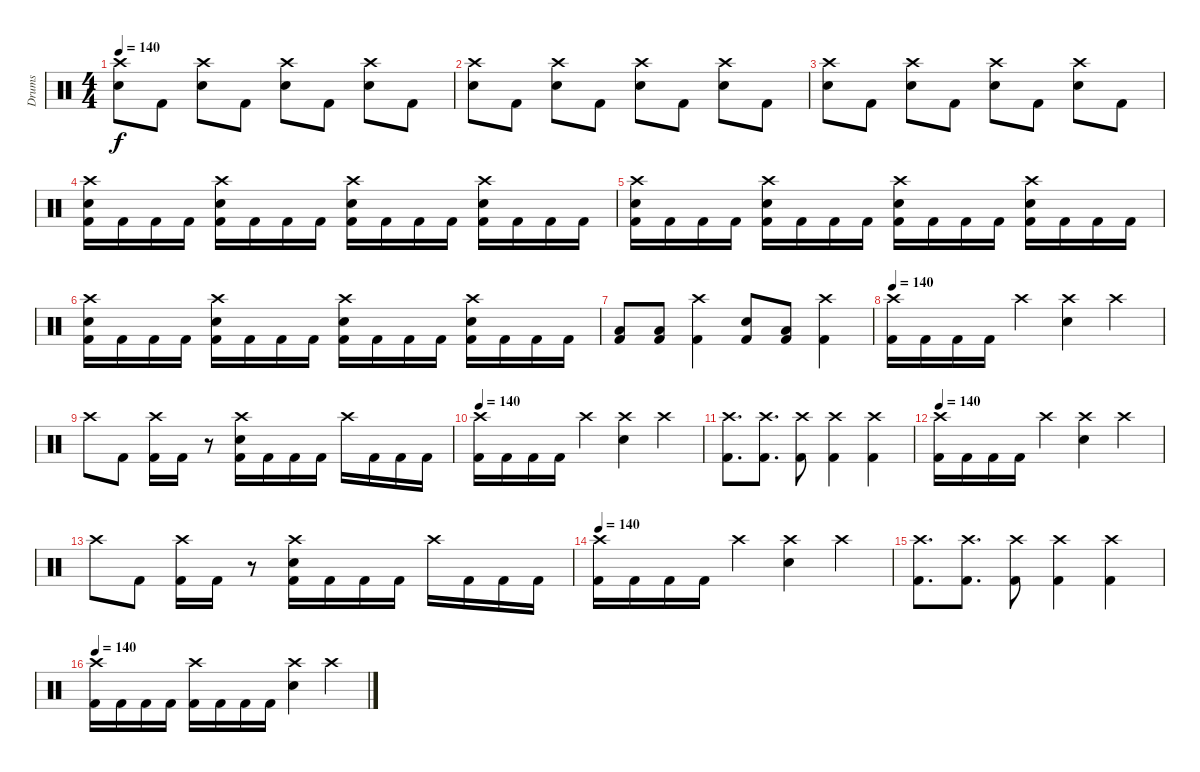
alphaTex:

\track ("Drums" "Drums") {instrument percussion}
\staff {score}
\articulation defaults
\ts (4 4)
\tempo 140
\clef neutral
\ks c
("Crash high (hit)" "Electric Snare (hit)").8{dy f} "Kick (hit) 2".8 ("Crash high (hit)" "Electric Snare (hit)").8 "Kick (hit) 2".8 ("Crash high (hit)" "Electric Snare (hit)").8 "Kick (hit) 2".8 ("Crash high (hit)" "Electric Snare (hit)").8 "Kick (hit) 2".8 |
("Crash high (hit)" "Electric Snare (hit)").8 "Kick (hit) 2".8 ("Crash high (hit)" "Electric Snare (hit)").8 "Kick (hit) 2".8 ("Crash high (hit)" "Electric Snare (hit)").8 "Kick (hit) 2".8 ("Crash high (hit)" "Electric Snare (hit)").8 "Kick (hit) 2".8 |
("Crash high (hit)" "Electric Snare (hit)").8 "Kick (hit) 2".8 ("Crash high (hit)" "Electric Snare (hit)").8 "Kick (hit) 2".8 ("Crash high (hit)" "Electric Snare (hit)").8 "Kick (hit) 2".8 ("Crash high (hit)" "Electric Snare (hit)").8 "Kick (hit) 2".8 |
("Crash high (hit)" "Electric Snare (hit)" "Kick (hit) 2").16 "Kick (hit) 2".16 "Kick (hit) 2".16 "Kick (hit) 2".16 ("Crash high (hit)" "Electric Snare (hit)" "Kick (hit) 2").16 "Kick (hit) 2".16 "Kick (hit) 2".16 "Kick (hit) 2".16 ("Crash high (hit)" "Electric Snare (hit)" "Kick (hit) 2").16 "Kick (hit) 2".16 "Kick (hit) 2".16 "Kick (hit) 2".16 ("Crash high (hit)" "Electric Snare (hit)" "Kick (hit) 2").16 "Kick (hit) 2".16 "Kick (hit) 2".16 "Kick (hit) 2".16 |
("Crash high (hit)" "Electric Snare (hit)" "Kick (hit) 2").16 "Kick (hit) 2".16 "Kick (hit) 2".16 "Kick (hit) 2".16 ("Crash high (hit)" "Electric Snare (hit)" "Kick (hit) 2").16 "Kick (hit) 2".16 "Kick (hit) 2".16 "Kick (hit) 2".16 ("Crash high (hit)" "Electric Snare (hit)" "Kick (hit) 2").16 "Kick (hit) 2".16 "Kick (hit) 2".16 "Kick (hit) 2".16 ("Crash high (hit)" "Electric Snare (hit)" "Kick (hit) 2").16 "Kick (hit) 2".16 "Kick (hit) 2".16 "Kick (hit) 2".16 |
("Crash high (hit)" "Electric Snare (hit)" "Kick (hit) 2").16 "Kick (hit) 2".16 "Kick (hit) 2".16 "Kick (hit) 2".16 ("Crash high (hit)" "Electric Snare (hit)" "Kick (hit) 2").16 "Kick (hit) 2".16 "Kick (hit) 2".16 "Kick (hit) 2".16 ("Crash high (hit)" "Electric Snare (hit)" "Kick (hit) 2").16 "Kick (hit) 2".16 "Kick (hit) 2".16 "Kick (hit) 2".16 ("Crash high (hit)" "Electric Snare (hit)" "Kick (hit) 2").16 "Kick (hit) 2".16 "Kick (hit) 2".16 "Kick (hit) 2".16 |
("Low Floor Tom (hit)" "Kick (hit) 2").8 ("Low Floor Tom (hit)" "Kick (hit) 2").8 ("Crash high (hit)" "Kick (hit) 2").4 ("Electric Snare (hit)" "Kick (hit) 2").8 ("Low Floor Tom (hit)" "Kick (hit) 2").8 ("Crash high (hit)" "Kick (hit) 2").4 |
\tempo 140
("Crash high (hit)" "Kick (hit) 2").16 "Kick (hit) 2".16 "Kick (hit) 2".16 "Kick (hit) 2".16 "Crash high (hit)".4 ("Crash high (hit)" "Electric Snare (hit)").4 "Crash high (hit)".4 |
"Crash high (hit)".8 "Kick (hit) 2".8 ("Crash high (hit)" "Kick (hit) 2").16 "Kick (hit) 2".16 r.8 ("Crash high (hit)" "Electric Snare (hit)" "Kick (hit) 2").16 "Kick (hit) 2".16 "Kick (hit) 2".16 "Kick (hit) 2".16 "Crash high (hit)".16 "Kick (hit) 2".16 "Kick (hit) 2".16 "Kick (hit) 2".16 |
\tempo 140
("Crash high (hit)" "Kick (hit) 2").16 "Kick (hit) 2".16 "Kick (hit) 2".16 "Kick (hit) 2".16 "Crash high (hit)".4 ("Crash high (hit)" "Electric Snare (hit)").4 "Crash high (hit)".4 |
("Crash high (hit)" "Kick (hit) 2").8{d} ("Crash high (hit)" "Kick (hit) 2").8{d} ("Crash high (hit)" "Kick (hit) 2").8 ("Crash high (hit)" "Kick (hit) 2").4 ("Crash high (hit)" "Kick (hit) 2").4 |
\tempo 140
("Crash high (hit)" "Kick (hit) 2").16 "Kick (hit) 2".16 "Kick (hit) 2".16 "Kick (hit) 2".16 "Crash high (hit)".4 ("Crash high (hit)" "Electric Snare (hit)").4 "Crash high (hit)".4 |
"Crash high (hit)".8 "Kick (hit) 2".8 ("Crash high (hit)" "Kick (hit) 2").16 "Kick (hit) 2".16 r.8 ("Crash high (hit)" "Electric Snare (hit)" "Kick (hit) 2").16 "Kick (hit) 2".16 "Kick (hit) 2".16 "Kick (hit) 2".16 "Crash high (hit)".16 "Kick (hit) 2".16 "Kick (hit) 2".16 "Kick (hit) 2".16 |
\tempo 140
("Crash high (hit)" "Kick (hit) 2").16 "Kick (hit) 2".16 "Kick (hit) 2".16 "Kick (hit) 2".16 "Crash high (hit)".4 ("Crash high (hit)" "Electric Snare (hit)").4 "Crash high (hit)".4 |
("Crash high (hit)" "Kick (hit) 2").8{d} ("Crash high (hit)" "Kick (hit) 2").8{d} ("Crash high (hit)" "Kick (hit) 2").8 ("Crash high (hit)" "Kick (hit) 2").4 ("Crash high (hit)" "Kick (hit) 2").4 |
\tempo 140
("Crash high (hit)" "Kick (hit) 2").16 "Kick (hit) 2".16 "Kick (hit) 2".16 "Kick (hit) 2".16 ("Crash high (hit)" "Kick (hit) 2").16 "Kick (hit) 2".16 "Kick (hit) 2".16 "Kick (hit) 2".16 ("Crash high (hit)" "Electric Snare (hit)").4 "Crash high (hit)".4
